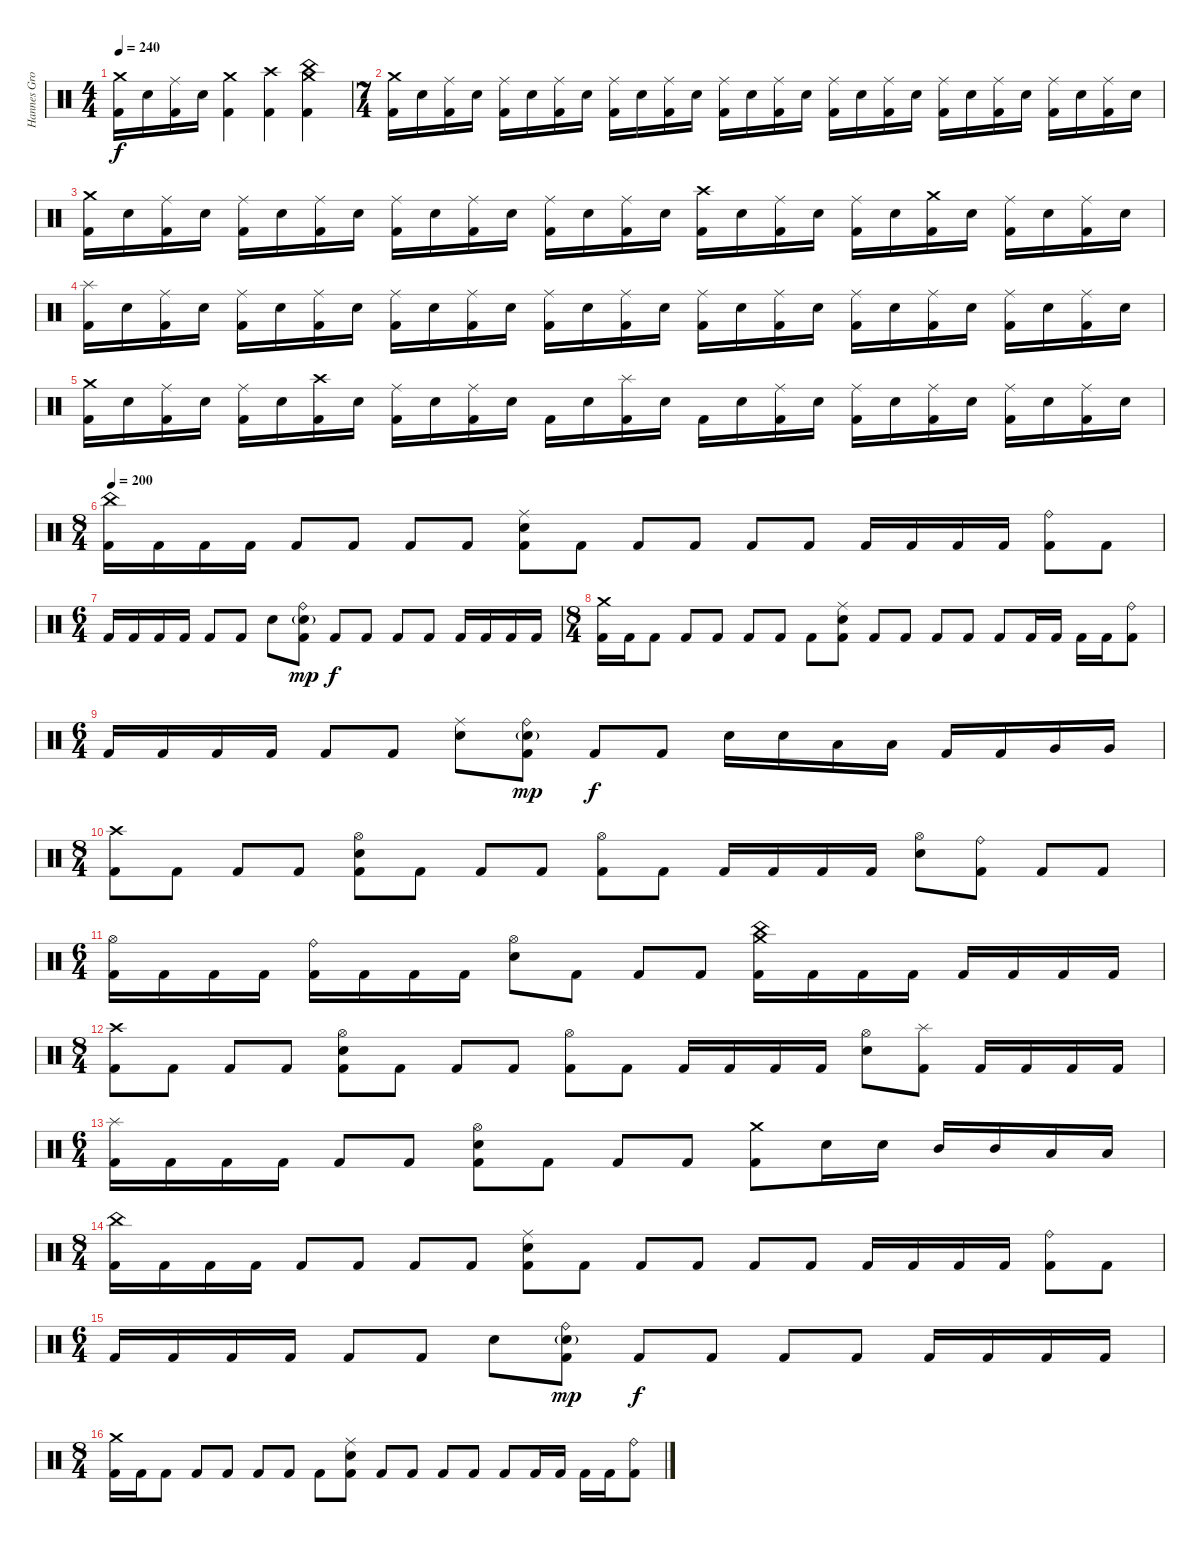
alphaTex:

\track ("Hannes Grossmann" "Hannes Gro") {instrument percussion}
\staff {score}
\articulation defaults
\ts (4 4)
\tempo 240
\clef neutral
\ks c
("Crash medium (hit)" "Kick (hit) 2").16{dy f} "Electric Snare (hit)".16 ("Ride (middle)" "Kick (hit) 2").16 "Electric Snare (hit)".16 ("Crash medium (hit)" "Kick (hit) 2").4 ("Crash high (hit)" "Kick (hit) 2").4 ("Crash medium (hit)" "China (hit)" "Kick (hit) 2").4 |
\ts (7 4)
("Crash medium (hit)" "Kick (hit) 2").16 "Electric Snare (hit)".16 ("Ride (middle)" "Kick (hit) 2").16 "Electric Snare (hit)".16 ("Ride (middle)" "Kick (hit) 2").16 "Electric Snare (hit)".16 ("Ride (middle)" "Kick (hit) 2").16 "Electric Snare (hit)".16 ("Ride (middle)" "Kick (hit) 2").16 "Electric Snare (hit)".16 ("Ride (middle)" "Kick (hit) 2").16 "Electric Snare (hit)".16 ("Ride (middle)" "Kick (hit) 2").16 "Electric Snare (hit)".16 ("Ride (middle)" "Kick (hit) 2").16 "Electric Snare (hit)".16 ("Ride (middle)" "Kick (hit) 2").16 "Electric Snare (hit)".16 ("Ride (middle)" "Kick (hit) 2").16 "Electric Snare (hit)".16 ("Ride (middle)" "Kick (hit) 2").16 "Electric Snare (hit)".16 ("Ride (middle)" "Kick (hit) 2").16 "Electric Snare (hit)".16 ("Ride (middle)" "Kick (hit) 2").16 "Electric Snare (hit)".16 ("Ride (middle)" "Kick (hit) 2").16 "Electric Snare (hit)".16 |
("Crash medium (hit)" "Kick (hit) 2").16 "Electric Snare (hit)".16 ("Ride (middle)" "Kick (hit) 2").16 "Electric Snare (hit)".16 ("Ride (middle)" "Kick (hit) 2").16 "Electric Snare (hit)".16 ("Ride (middle)" "Kick (hit) 2").16 "Electric Snare (hit)".16 ("Ride (middle)" "Kick (hit) 2").16 "Electric Snare (hit)".16 ("Ride (middle)" "Kick (hit) 2").16 "Electric Snare (hit)".16 ("Ride (middle)" "Kick (hit) 2").16 "Electric Snare (hit)".16 ("Ride (middle)" "Kick (hit) 2").16 "Electric Snare (hit)".16 ("Crash high (hit)" "Kick (hit) 2").16 "Electric Snare (hit)".16 ("Ride (middle)" "Kick (hit) 2").16 "Electric Snare (hit)".16 ("Ride (middle)" "Kick (hit) 2").16 "Electric Snare (hit)".16 ("Crash medium (hit)" "Kick (hit) 2").16 "Electric Snare (hit)".16 ("Ride (middle)" "Kick (hit) 2").16 "Electric Snare (hit)".16 ("Ride (middle)" "Kick (hit) 2").16 "Electric Snare (hit)".16 |
("Splash (hit)" "Kick (hit) 2").16 "Electric Snare (hit)".16 ("Ride (middle)" "Kick (hit) 2").16 "Electric Snare (hit)".16 ("Ride (middle)" "Kick (hit) 2").16 "Electric Snare (hit)".16 ("Ride (middle)" "Kick (hit) 2").16 "Electric Snare (hit)".16 ("Ride (middle)" "Kick (hit) 2").16 "Electric Snare (hit)".16 ("Ride (middle)" "Kick (hit) 2").16 "Electric Snare (hit)".16 ("Ride (middle)" "Kick (hit) 2").16 "Electric Snare (hit)".16 ("Ride (middle)" "Kick (hit) 2").16 "Electric Snare (hit)".16 ("Ride (middle)" "Kick (hit) 2").16 "Electric Snare (hit)".16 ("Ride (middle)" "Kick (hit) 2").16 "Electric Snare (hit)".16 ("Ride (middle)" "Kick (hit) 2").16 "Electric Snare (hit)".16 ("Ride (middle)" "Kick (hit) 2").16 "Electric Snare (hit)".16 ("Ride (middle)" "Kick (hit) 2").16 "Electric Snare (hit)".16 ("Ride (middle)" "Kick (hit) 2").16 "Electric Snare (hit)".16 |
("Crash medium (hit)" "Kick (hit) 2").16 "Electric Snare (hit)".16 ("Ride (middle)" "Kick (hit) 2").16 "Electric Snare (hit)".16 ("Ride (middle)" "Kick (hit) 2").16 "Electric Snare (hit)".16 ("Crash high (hit)" "Kick (hit) 2").16 "Electric Snare (hit)".16 ("Ride (middle)" "Kick (hit) 2").16 "Electric Snare (hit)".16 ("Ride (middle)" "Kick (hit) 2").16 "Electric Snare (hit)".16 "Kick (hit) 2".16 "Electric Snare (hit)".16 ("Splash (hit)" "Kick (hit) 2").16 "Electric Snare (hit)".16 "Kick (hit) 2".16 "Electric Snare (hit)".16 ("Ride (middle)" "Kick (hit) 2").16 "Electric Snare (hit)".16 ("Ride (middle)" "Kick (hit) 2").16 "Electric Snare (hit)".16 ("Ride (middle)" "Kick (hit) 2").16 "Electric Snare (hit)".16 ("Ride (middle)" "Kick (hit) 2").16 "Electric Snare (hit)".16 ("Ride (middle)" "Kick (hit) 2").16 "Electric Snare (hit)".16 |
\ts (8 4)
\tempo 200
("China (hit)" "Kick (hit) 2").16 "Kick (hit) 2".16 "Kick (hit) 2".16 "Kick (hit) 2".16 "Kick (hit) 2".8 "Kick (hit) 2".8 "Kick (hit) 2".8 "Kick (hit) 2".8 ("Ride (middle)" "Electric Snare (hit)" "Kick (hit) 2").8 "Kick (hit) 2".8 "Kick (hit) 2".8 "Kick (hit) 2".8 "Kick (hit) 2".8 "Kick (hit) 2".8 "Kick (hit) 2".16 "Kick (hit) 2".16 "Kick (hit) 2".16 "Kick (hit) 2".16 ("Ride (bell)" "Kick (hit) 2").8 "Kick (hit) 2".8 |
\ts (6 4)
"Kick (hit) 2".16 "Kick (hit) 2".16 "Kick (hit) 2".16 "Kick (hit) 2".16 "Kick (hit) 2".8 "Kick (hit) 2".8 "Electric Snare (hit)".8 ("Ride (bell)" "Electric Snare (hit)"{g} "Kick (hit) 2").8{dy mp} "Kick (hit) 2".8{dy f} "Kick (hit) 2".8 "Kick (hit) 2".8 "Kick (hit) 2".8 "Kick (hit) 2".16 "Kick (hit) 2".16 "Kick (hit) 2".16 "Kick (hit) 2".16 |
\ts (8 4)
("Crash medium (hit)" "Kick (hit) 2").16 "Kick (hit) 2".16 "Kick (hit) 2".8 "Kick (hit) 2".8 "Kick (hit) 2".8 "Kick (hit) 2".8 "Kick (hit) 2".8 "Kick (hit) 2".8 ("Ride (middle)" "Electric Snare (hit)" "Kick (hit) 2").8 "Kick (hit) 2".8 "Kick (hit) 2".8 "Kick (hit) 2".8 "Kick (hit) 2".8 "Kick (hit) 2".8 "Kick (hit) 2".16 "Kick (hit) 2".16 "Kick (hit) 2".16 "Kick (hit) 2".16 ("Ride (bell)" "Kick (hit) 2").8 |
\ts (6 4)
"Kick (hit) 2".16 "Kick (hit) 2".16 "Kick (hit) 2".16 "Kick (hit) 2".16 "Kick (hit) 2".8 "Kick (hit) 2".8 ("Ride (middle)" "Electric Snare (hit)").8 ("Ride (bell)" "Electric Snare (hit)"{g} "Kick (hit) 2").8{dy mp} "Kick (hit) 2".8{dy f} "Kick (hit) 2".8 "Electric Snare (hit)".16 "Electric Snare (hit)".16 "Low Tom (hit)".16 "Low Tom (hit)".16 "Kick (hit) 2".16 "Kick (hit) 2".16 "Very Low Tom (hit)".16 "Very Low Tom (hit)".16 |
\ts (8 4)
("Crash high (hit)" "Kick (hit) 2").8 "Kick (hit) 2".8 "Kick (hit) 2".8 "Kick (hit) 2".8 ("Hi-Hat (open)" "Electric Snare (hit)" "Kick (hit) 2").8 "Kick (hit) 2".8 "Kick (hit) 2".8 "Kick (hit) 2".8 ("Hi-Hat (open)" "Kick (hit) 2").8 "Kick (hit) 2".8 "Kick (hit) 2".16 "Kick (hit) 2".16 "Kick (hit) 2".16 "Kick (hit) 2".16 ("Hi-Hat (open)" "Electric Snare (hit)").8 ("Ride (bell)" "Kick (hit) 2").8 "Kick (hit) 2".8 "Kick (hit) 2".8 |
\ts (6 4)
("Hi-Hat (open)" "Kick (hit) 2").16 "Kick (hit) 2".16 "Kick (hit) 2".16 "Kick (hit) 2".16 ("Ride (bell)" "Kick (hit) 2").16 "Kick (hit) 2".16 "Kick (hit) 2".16 "Kick (hit) 2".16 ("Hi-Hat (open)" "Electric Snare (hit)").8 "Kick (hit) 2".8 "Kick (hit) 2".8 "Kick (hit) 2".8 ("China (hit)" "Crash medium (hit)" "Kick (hit) 2").16 "Kick (hit) 2".16 "Kick (hit) 2".16 "Kick (hit) 2".16 "Kick (hit) 2".16 "Kick (hit) 2".16 "Kick (hit) 2".16 "Kick (hit) 2".16 |
\ts (8 4)
("Crash high (hit)" "Kick (hit) 2").8 "Kick (hit) 2".8 "Kick (hit) 2".8 "Kick (hit) 2".8 ("Hi-Hat (open)" "Electric Snare (hit)" "Kick (hit) 2").8 "Kick (hit) 2".8 "Kick (hit) 2".8 "Kick (hit) 2".8 ("Hi-Hat (open)" "Kick (hit) 2").8 "Kick (hit) 2".8 "Kick (hit) 2".16 "Kick (hit) 2".16 "Kick (hit) 2".16 "Kick (hit) 2".16 ("Hi-Hat (open)" "Electric Snare (hit)").8 ("Splash (hit)" "Kick (hit) 2").8 "Kick (hit) 2".16 "Kick (hit) 2".16 "Kick (hit) 2".16 "Kick (hit) 2".16 |
\ts (6 4)
("Splash (hit)" "Kick (hit) 2").16 "Kick (hit) 2".16 "Kick (hit) 2".16 "Kick (hit) 2".16 "Kick (hit) 2".8 "Kick (hit) 2".8 ("Hi-Hat (open)" "Electric Snare (hit)" "Kick (hit) 2").8 "Kick (hit) 2".8 "Kick (hit) 2".8 "Kick (hit) 2".8 ("Crash medium (hit)" "Kick (hit) 2").8 "Electric Snare (hit)".16 "Electric Snare (hit)".16 "Mid Tom (hit)".16 "Mid Tom (hit)".16 "Low Tom (hit)".16 "Low Tom (hit)".16 |
\ts (8 4)
("China (hit)" "Kick (hit) 2").16 "Kick (hit) 2".16 "Kick (hit) 2".16 "Kick (hit) 2".16 "Kick (hit) 2".8 "Kick (hit) 2".8 "Kick (hit) 2".8 "Kick (hit) 2".8 ("Ride (middle)" "Electric Snare (hit)" "Kick (hit) 2").8 "Kick (hit) 2".8 "Kick (hit) 2".8 "Kick (hit) 2".8 "Kick (hit) 2".8 "Kick (hit) 2".8 "Kick (hit) 2".16 "Kick (hit) 2".16 "Kick (hit) 2".16 "Kick (hit) 2".16 ("Ride (bell)" "Kick (hit) 2").8 "Kick (hit) 2".8 |
\ts (6 4)
"Kick (hit) 2".16 "Kick (hit) 2".16 "Kick (hit) 2".16 "Kick (hit) 2".16 "Kick (hit) 2".8 "Kick (hit) 2".8 "Electric Snare (hit)".8 ("Ride (bell)" "Electric Snare (hit)"{g} "Kick (hit) 2").8{dy mp} "Kick (hit) 2".8{dy f} "Kick (hit) 2".8 "Kick (hit) 2".8 "Kick (hit) 2".8 "Kick (hit) 2".16 "Kick (hit) 2".16 "Kick (hit) 2".16 "Kick (hit) 2".16 |
\ts (8 4)
("Crash medium (hit)" "Kick (hit) 2").16 "Kick (hit) 2".16 "Kick (hit) 2".8 "Kick (hit) 2".8 "Kick (hit) 2".8 "Kick (hit) 2".8 "Kick (hit) 2".8 "Kick (hit) 2".8 ("Ride (middle)" "Electric Snare (hit)" "Kick (hit) 2").8 "Kick (hit) 2".8 "Kick (hit) 2".8 "Kick (hit) 2".8 "Kick (hit) 2".8 "Kick (hit) 2".8 "Kick (hit) 2".16 "Kick (hit) 2".16 "Kick (hit) 2".16 "Kick (hit) 2".16 ("Ride (bell)" "Kick (hit) 2").8
